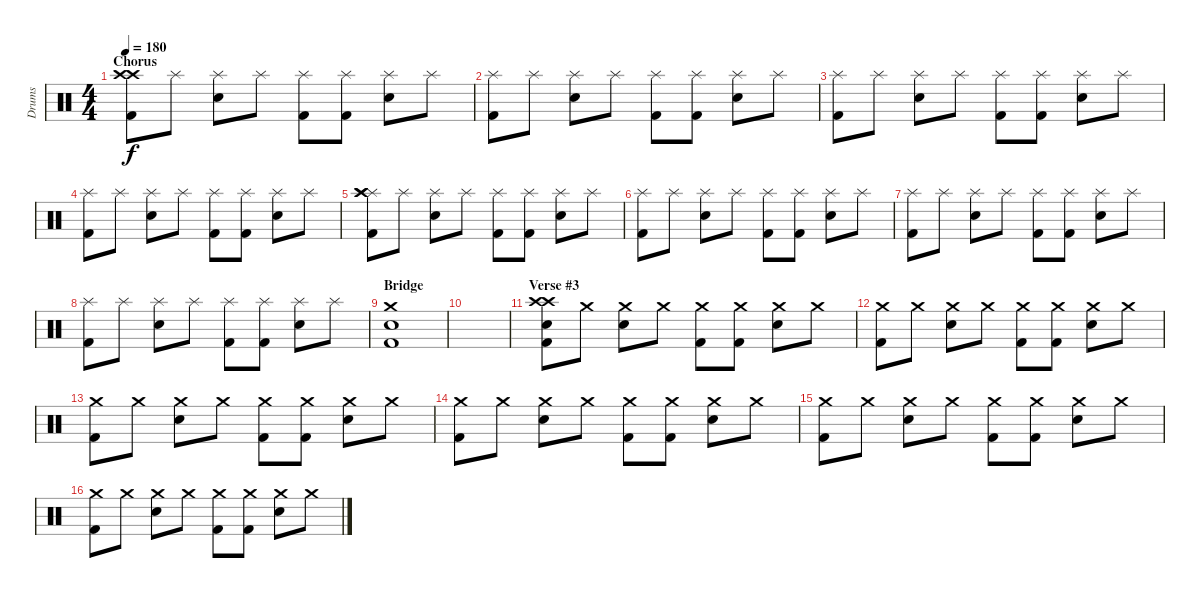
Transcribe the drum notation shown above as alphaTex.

\track ("Drums" "Drums") {instrument percussion}
\staff {score}
\articulation defaults
\ts (4 4)
\section ("" "Chorus")
\tempo 180
\clef neutral
\ks c
("Kick (hit) 2" "Crash high (hit)" "Crash high (hit)").8{dy f} "Splash (hit)".8 ("Splash (hit)" "Electric Snare (hit)").8 "Splash (hit)".8 ("Splash (hit)" "Kick (hit) 2").8 ("Splash (hit)" "Kick (hit) 2").8 ("Splash (hit)" "Electric Snare (hit)").8 "Splash (hit)".8 |
("Splash (hit)" "Kick (hit) 2").8 "Splash (hit)".8 ("Splash (hit)" "Electric Snare (hit)").8 "Splash (hit)".8 ("Splash (hit)" "Kick (hit) 2").8 ("Splash (hit)" "Kick (hit) 2").8 ("Splash (hit)" "Electric Snare (hit)").8 "Splash (hit)".8 |
("Splash (hit)" "Kick (hit) 2").8 "Splash (hit)".8 ("Splash (hit)" "Electric Snare (hit)").8 "Splash (hit)".8 ("Splash (hit)" "Kick (hit) 2").8 ("Splash (hit)" "Kick (hit) 2").8 ("Splash (hit)" "Electric Snare (hit)").8 "Splash (hit)".8 |
("Splash (hit)" "Kick (hit) 2").8 "Splash (hit)".8 ("Splash (hit)" "Electric Snare (hit)").8 "Splash (hit)".8 ("Splash (hit)" "Kick (hit) 2").8 ("Splash (hit)" "Kick (hit) 2").8 ("Splash (hit)" "Electric Snare (hit)").8 "Splash (hit)".8 |
("Splash (hit)" "Kick (hit) 2" "Crash high (hit)" "Crash high (hit)").8 "Splash (hit)".8 ("Splash (hit)" "Electric Snare (hit)").8 "Splash (hit)".8 ("Splash (hit)" "Kick (hit) 2").8 ("Splash (hit)" "Kick (hit) 2").8 ("Splash (hit)" "Electric Snare (hit)").8 "Splash (hit)".8 |
("Splash (hit)" "Kick (hit) 2").8 "Splash (hit)".8 ("Splash (hit)" "Electric Snare (hit)").8 "Splash (hit)".8 ("Splash (hit)" "Kick (hit) 2").8 ("Splash (hit)" "Kick (hit) 2").8 ("Splash (hit)" "Electric Snare (hit)").8 "Splash (hit)".8 |
("Splash (hit)" "Kick (hit) 2").8 "Splash (hit)".8 ("Splash (hit)" "Electric Snare (hit)").8 "Splash (hit)".8 ("Splash (hit)" "Kick (hit) 2").8 ("Splash (hit)" "Kick (hit) 2").8 ("Splash (hit)" "Electric Snare (hit)").8 "Splash (hit)".8 |
("Splash (hit)" "Kick (hit) 2").8 "Splash (hit)".8 ("Splash (hit)" "Electric Snare (hit)").8 "Splash (hit)".8 ("Splash (hit)" "Kick (hit) 2").8 ("Splash (hit)" "Kick (hit) 2").8 ("Splash (hit)" "Electric Snare (hit)").8 "Splash (hit)".8 |
\section ("" "Bridge")
("Crash medium (hit)" "Kick (hit) 2" "Electric Snare (hit)").1 |
|
\section ("" "Verse #3")
("Kick (hit) 2" "Electric Snare (hit)" "Crash high (hit)" "Crash high (hit)").8 "Crash medium (hit)".8 ("Crash medium (hit)" "Electric Snare (hit)").8 "Crash medium (hit)".8 ("Crash medium (hit)" "Kick (hit) 2").8 ("Crash medium (hit)" "Kick (hit) 2").8 ("Crash medium (hit)" "Electric Snare (hit)").8 "Crash medium (hit)".8 |
("Crash medium (hit)" "Kick (hit) 2").8 "Crash medium (hit)".8 ("Crash medium (hit)" "Electric Snare (hit)").8 "Crash medium (hit)".8 ("Crash medium (hit)" "Kick (hit) 2").8 ("Crash medium (hit)" "Kick (hit) 2").8 ("Crash medium (hit)" "Electric Snare (hit)").8 "Crash medium (hit)".8 |
("Crash medium (hit)" "Kick (hit) 2").8 "Crash medium (hit)".8 ("Crash medium (hit)" "Electric Snare (hit)").8 "Crash medium (hit)".8 ("Crash medium (hit)" "Kick (hit) 2").8 ("Crash medium (hit)" "Kick (hit) 2").8 ("Crash medium (hit)" "Electric Snare (hit)").8 "Crash medium (hit)".8 |
("Crash medium (hit)" "Kick (hit) 2").8 "Crash medium (hit)".8 ("Crash medium (hit)" "Electric Snare (hit)").8 "Crash medium (hit)".8 ("Crash medium (hit)" "Kick (hit) 2").8 ("Crash medium (hit)" "Kick (hit) 2").8 ("Crash medium (hit)" "Electric Snare (hit)").8 "Crash medium (hit)".8 |
("Crash medium (hit)" "Kick (hit) 2").8 "Crash medium (hit)".8 ("Crash medium (hit)" "Electric Snare (hit)").8 "Crash medium (hit)".8 ("Crash medium (hit)" "Kick (hit) 2").8 ("Crash medium (hit)" "Kick (hit) 2").8 ("Crash medium (hit)" "Electric Snare (hit)").8 "Crash medium (hit)".8 |
("Crash medium (hit)" "Kick (hit) 2").8 "Crash medium (hit)".8 ("Crash medium (hit)" "Electric Snare (hit)").8 "Crash medium (hit)".8 ("Crash medium (hit)" "Kick (hit) 2").8 ("Crash medium (hit)" "Kick (hit) 2").8 ("Crash medium (hit)" "Electric Snare (hit)").8 "Crash medium (hit)".8
